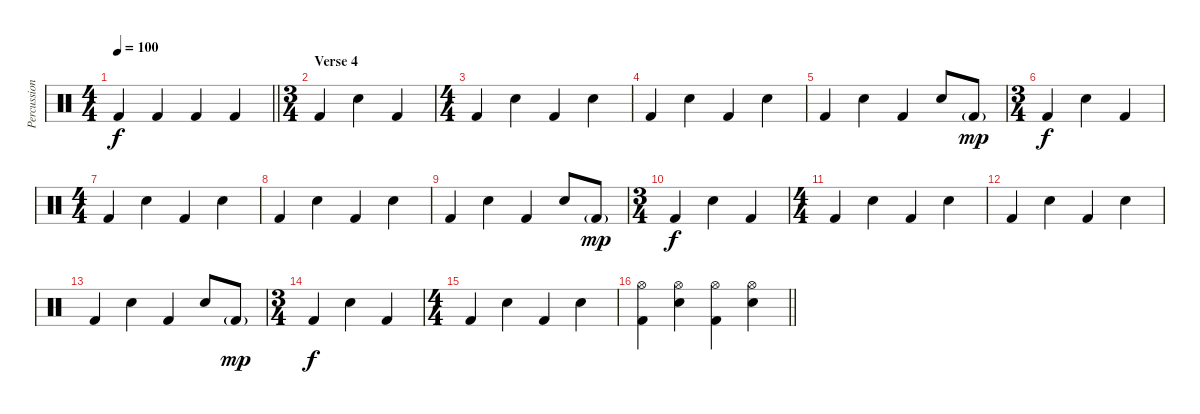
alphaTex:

\track ("Percussion" "Percussion") {instrument percussion}
\staff {score}
\articulation defaults
\ts (4 4)
\tempo 100
\clef neutral
\barLineRight lightlight
\ks c "Kick (hit) 2".4{dy f} "Kick (hit) 2".4 "Kick (hit) 2".4 "Kick (hit) 2".4
|
\ts (3 4)
\section ("" "Verse 4")
"Kick (hit) 2".4 "Snare (hit) 2".4 "Kick (hit) 2".4 |
\ts (4 4)
"Kick (hit) 2".4 "Snare (hit) 2".4 "Kick (hit) 2".4 "Snare (hit) 2".4 |
"Kick (hit) 2".4 "Snare (hit) 2".4 "Kick (hit) 2".4 "Snare (hit) 2".4 |
"Kick (hit) 2".4 "Snare (hit) 2".4 "Kick (hit) 2".4 "Snare (hit) 2".8 "Kick (hit) 2"{g}.8{dy mp} |
\ts (3 4)
"Kick (hit) 2".4{dy f} "Snare (hit) 2".4 "Kick (hit) 2".4 |
\ts (4 4)
"Kick (hit) 2".4 "Snare (hit) 2".4 "Kick (hit) 2".4 "Snare (hit) 2".4 |
"Kick (hit) 2".4 "Snare (hit) 2".4 "Kick (hit) 2".4 "Snare (hit) 2".4 |
"Kick (hit) 2".4 "Snare (hit) 2".4 "Kick (hit) 2".4 "Snare (hit) 2".8 "Kick (hit) 2"{g}.8{dy mp} |
\ts (3 4)
"Kick (hit) 2".4{dy f} "Snare (hit) 2".4 "Kick (hit) 2".4 |
\ts (4 4)
"Kick (hit) 2".4 "Snare (hit) 2".4 "Kick (hit) 2".4 "Snare (hit) 2".4 |
"Kick (hit) 2".4 "Snare (hit) 2".4 "Kick (hit) 2".4 "Snare (hit) 2".4 |
"Kick (hit) 2".4 "Snare (hit) 2".4 "Kick (hit) 2".4 "Snare (hit) 2".8 "Kick (hit) 2"{g}.8{dy mp} |
\ts (3 4)
"Kick (hit) 2".4{dy f} "Snare (hit) 2".4 "Kick (hit) 2".4 |
\ts (4 4)
"Kick (hit) 2".4 "Snare (hit) 2".4 "Kick (hit) 2".4 "Snare (hit) 2".4 |
\barLineRight lightlight
("Hi-Hat (open)" "Kick (hit) 2").4 ("Hi-Hat (open)" "Snare (hit) 2").4 ("Hi-Hat (open)" "Kick (hit) 2").4 ("Hi-Hat (open)" "Snare (hit) 2").4
